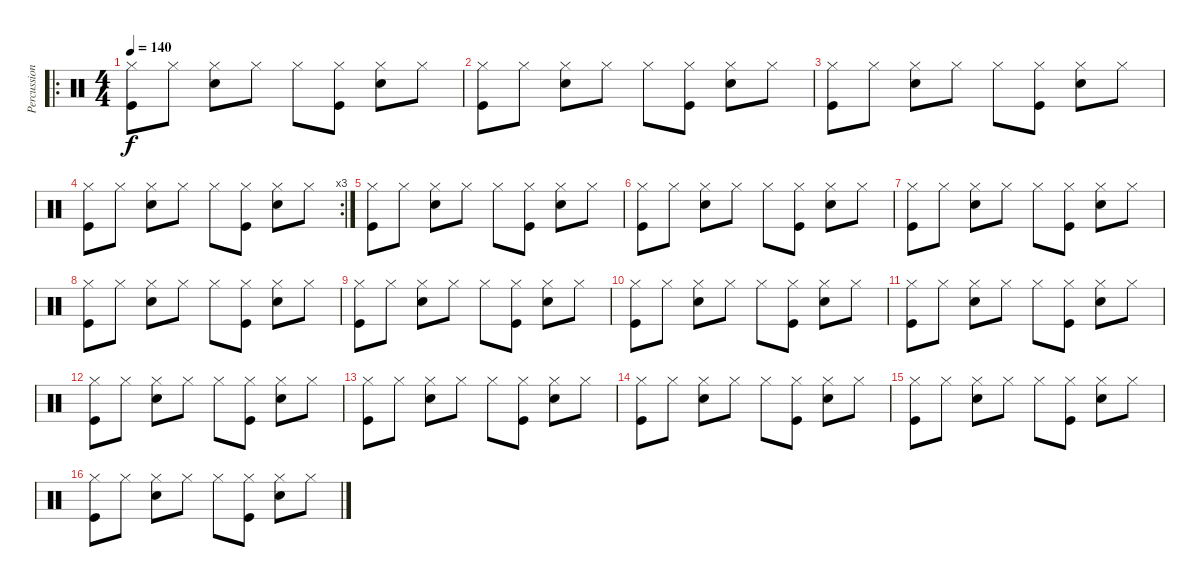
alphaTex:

\track ("Percussion" "Percussion") {instrument percussion}
\staff {score}
\articulation defaults
\ro
\ts (4 4)
\tempo 140
\clef neutral
\ks c
("Hi-Hat (closed)" "Kick (hit)").8{dy f} "Hi-Hat (closed)".8 ("Hi-Hat (closed)" "Snare (hit) 2").8 "Hi-Hat (closed)".8 "Hi-Hat (closed)".8 ("Hi-Hat (closed)" "Kick (hit)").8 ("Hi-Hat (closed)" "Snare (hit) 2").8 "Hi-Hat (closed)".8 |
("Hi-Hat (closed)" "Kick (hit)").8 "Hi-Hat (closed)".8 ("Hi-Hat (closed)" "Snare (hit) 2").8 "Hi-Hat (closed)".8 "Hi-Hat (closed)".8 ("Hi-Hat (closed)" "Kick (hit)").8 ("Hi-Hat (closed)" "Snare (hit) 2").8 "Hi-Hat (closed)".8 |
("Hi-Hat (closed)" "Kick (hit)").8 "Hi-Hat (closed)".8 ("Hi-Hat (closed)" "Snare (hit) 2").8 "Hi-Hat (closed)".8 "Hi-Hat (closed)".8 ("Hi-Hat (closed)" "Kick (hit)").8 ("Hi-Hat (closed)" "Snare (hit) 2").8 "Hi-Hat (closed)".8 |
\rc 3
("Hi-Hat (closed)" "Kick (hit)").8 "Hi-Hat (closed)".8 ("Hi-Hat (closed)" "Snare (hit) 2").8 "Hi-Hat (closed)".8 "Hi-Hat (closed)".8 ("Hi-Hat (closed)" "Kick (hit)").8 ("Hi-Hat (closed)" "Snare (hit) 2").8 "Hi-Hat (closed)".8 |
("Hi-Hat (closed)" "Kick (hit)").8 "Hi-Hat (closed)".8 ("Hi-Hat (closed)" "Snare (hit) 2").8 "Hi-Hat (closed)".8 "Hi-Hat (closed)".8 ("Hi-Hat (closed)" "Kick (hit)").8 ("Hi-Hat (closed)" "Snare (hit) 2").8 "Hi-Hat (closed)".8 |
("Hi-Hat (closed)" "Kick (hit)").8 "Hi-Hat (closed)".8 ("Hi-Hat (closed)" "Snare (hit) 2").8 "Hi-Hat (closed)".8 "Hi-Hat (closed)".8 ("Hi-Hat (closed)" "Kick (hit)").8 ("Hi-Hat (closed)" "Snare (hit) 2").8 "Hi-Hat (closed)".8 |
("Hi-Hat (closed)" "Kick (hit)").8 "Hi-Hat (closed)".8 ("Hi-Hat (closed)" "Snare (hit) 2").8 "Hi-Hat (closed)".8 "Hi-Hat (closed)".8 ("Hi-Hat (closed)" "Kick (hit)").8 ("Hi-Hat (closed)" "Snare (hit) 2").8 "Hi-Hat (closed)".8 |
("Hi-Hat (closed)" "Kick (hit)").8 "Hi-Hat (closed)".8 ("Hi-Hat (closed)" "Snare (hit) 2").8 "Hi-Hat (closed)".8 "Hi-Hat (closed)".8 ("Hi-Hat (closed)" "Kick (hit)").8 ("Hi-Hat (closed)" "Snare (hit) 2").8 "Hi-Hat (closed)".8 |
("Hi-Hat (closed)" "Kick (hit)").8 "Hi-Hat (closed)".8 ("Hi-Hat (closed)" "Snare (hit) 2").8 "Hi-Hat (closed)".8 "Hi-Hat (closed)".8 ("Hi-Hat (closed)" "Kick (hit)").8 ("Hi-Hat (closed)" "Snare (hit) 2").8 "Hi-Hat (closed)".8 |
("Hi-Hat (closed)" "Kick (hit)").8 "Hi-Hat (closed)".8 ("Hi-Hat (closed)" "Snare (hit) 2").8 "Hi-Hat (closed)".8 "Hi-Hat (closed)".8 ("Hi-Hat (closed)" "Kick (hit)").8 ("Hi-Hat (closed)" "Snare (hit) 2").8 "Hi-Hat (closed)".8 |
("Hi-Hat (closed)" "Kick (hit)").8 "Hi-Hat (closed)".8 ("Hi-Hat (closed)" "Snare (hit) 2").8 "Hi-Hat (closed)".8 "Hi-Hat (closed)".8 ("Hi-Hat (closed)" "Kick (hit)").8 ("Hi-Hat (closed)" "Snare (hit) 2").8 "Hi-Hat (closed)".8 |
("Hi-Hat (closed)" "Kick (hit)").8 "Hi-Hat (closed)".8 ("Hi-Hat (closed)" "Snare (hit) 2").8 "Hi-Hat (closed)".8 "Hi-Hat (closed)".8 ("Hi-Hat (closed)" "Kick (hit)").8 ("Hi-Hat (closed)" "Snare (hit) 2").8 "Hi-Hat (closed)".8 |
("Hi-Hat (closed)" "Kick (hit)").8 "Hi-Hat (closed)".8 ("Hi-Hat (closed)" "Snare (hit) 2").8 "Hi-Hat (closed)".8 "Hi-Hat (closed)".8 ("Hi-Hat (closed)" "Kick (hit)").8 ("Hi-Hat (closed)" "Snare (hit) 2").8 "Hi-Hat (closed)".8 |
("Hi-Hat (closed)" "Kick (hit)").8 "Hi-Hat (closed)".8 ("Hi-Hat (closed)" "Snare (hit) 2").8 "Hi-Hat (closed)".8 "Hi-Hat (closed)".8 ("Hi-Hat (closed)" "Kick (hit)").8 ("Hi-Hat (closed)" "Snare (hit) 2").8 "Hi-Hat (closed)".8 |
("Hi-Hat (closed)" "Kick (hit)").8 "Hi-Hat (closed)".8 ("Hi-Hat (closed)" "Snare (hit) 2").8 "Hi-Hat (closed)".8 "Hi-Hat (closed)".8 ("Hi-Hat (closed)" "Kick (hit)").8 ("Hi-Hat (closed)" "Snare (hit) 2").8 "Hi-Hat (closed)".8 |
("Hi-Hat (closed)" "Kick (hit)").8 "Hi-Hat (closed)".8 ("Hi-Hat (closed)" "Snare (hit) 2").8 "Hi-Hat (closed)".8 "Hi-Hat (closed)".8 ("Hi-Hat (closed)" "Kick (hit)").8 ("Hi-Hat (closed)" "Snare (hit) 2").8 "Hi-Hat (closed)".8
